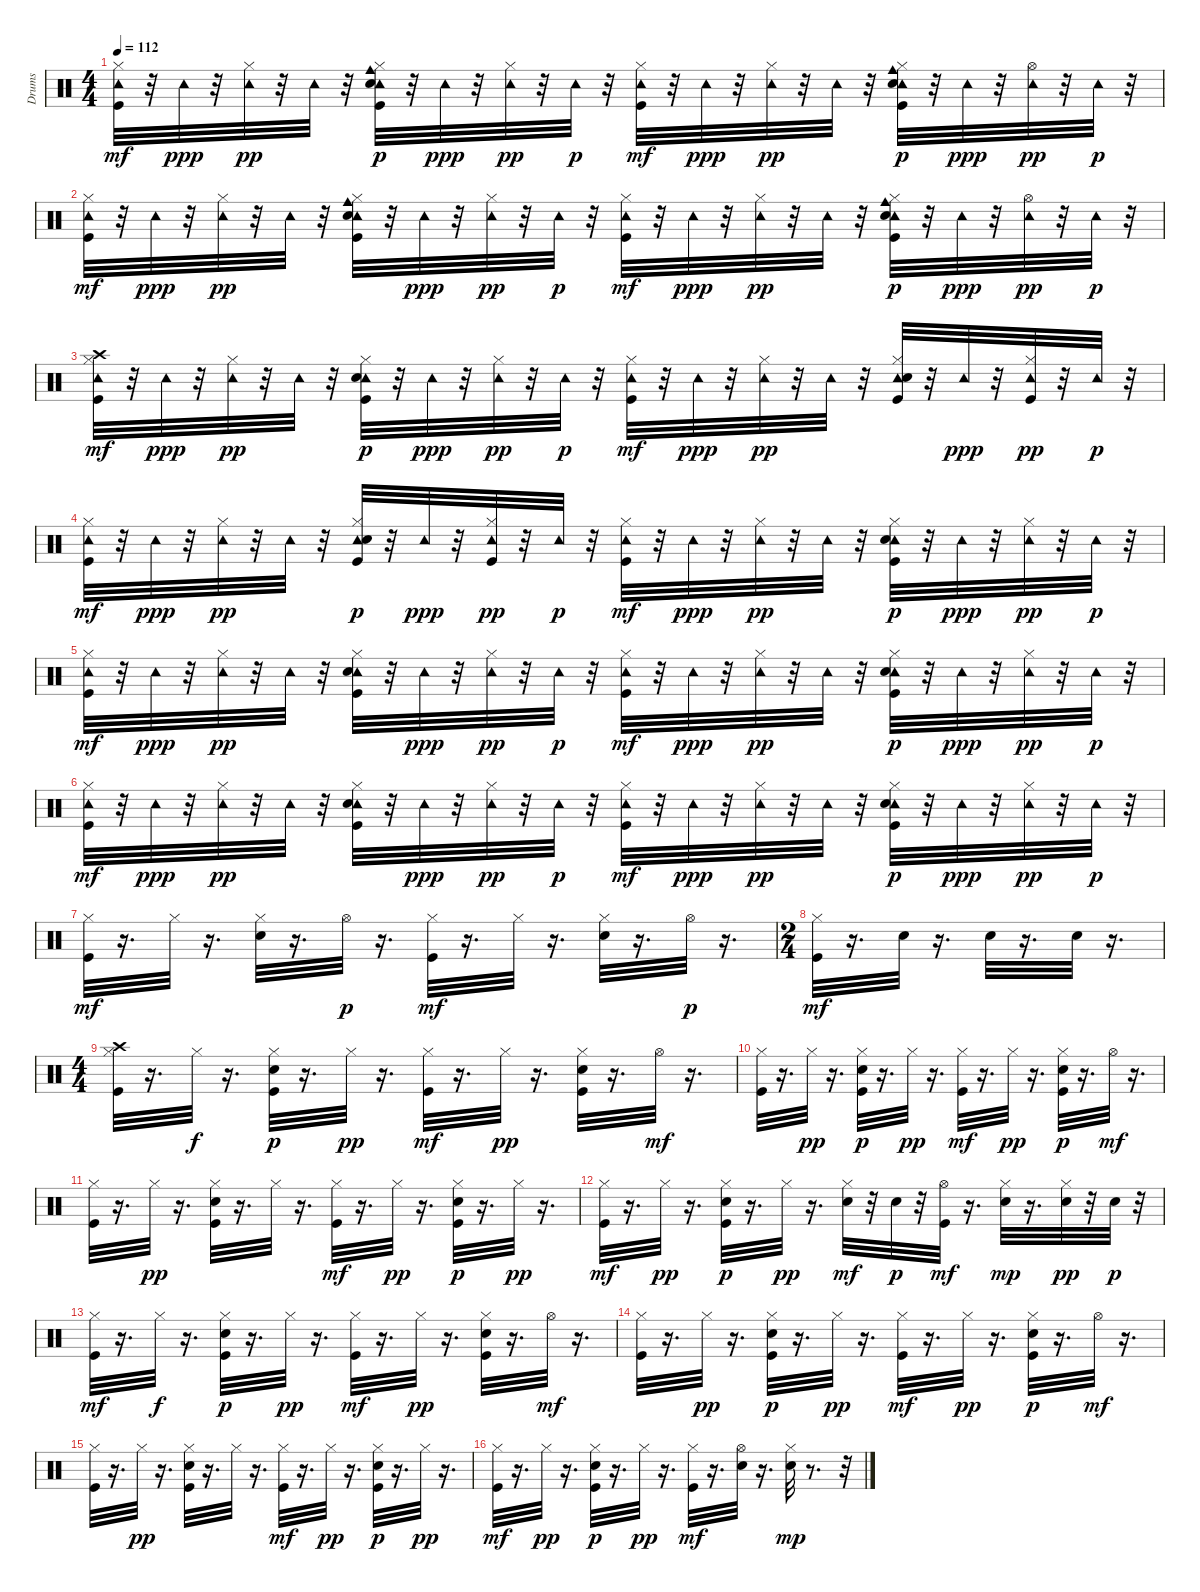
\track ("Drums" "Drums") {instrument percussion}
\staff {score}
\articulation defaults
\ts (4 4)
\tempo 112
\clef neutral
\ks c
("Tambourine (hit)" "Hi-Hat (closed)" "Kick (hit)").32{dy mf} r.32 "Tambourine (hit)".32{dy ppp} r.32 ("Tambourine (hit)" "Hi-Hat (closed)").32{dy pp} r.32 "Tambourine (hit)".32 r.32 ("Cowbell medium (hit)" "Tambourine (hit)" "Hi-Hat (closed)" "Electric Snare (hit)" "Kick (hit)").32{dy p} r.32 "Tambourine (hit)".32{dy ppp} r.32 ("Tambourine (hit)" "Hi-Hat (closed)").32{dy pp} r.32 "Tambourine (hit)".32{dy p} r.32 ("Tambourine (hit)" "Hi-Hat (closed)" "Kick (hit)").32{dy mf} r.32 "Tambourine (hit)".32{dy ppp} r.32 ("Tambourine (hit)" "Hi-Hat (closed)").32{dy pp} r.32 "Tambourine (hit)".32 r.32 ("Cowbell medium (hit)" "Tambourine (hit)" "Hi-Hat (closed)" "Electric Snare (hit)" "Kick (hit)").32{dy p} r.32 "Tambourine (hit)".32{dy ppp} r.32 ("Hi-Hat (open)" "Tambourine (hit)").32{dy pp} r.32 "Tambourine (hit)".32{dy p} r.32 |
("Tambourine (hit)" "Hi-Hat (closed)" "Kick (hit)").32{dy mf} r.32 "Tambourine (hit)".32{dy ppp} r.32 ("Tambourine (hit)" "Hi-Hat (closed)").32{dy pp} r.32 "Tambourine (hit)".32 r.32 ("Cowbell medium (hit)" "Tambourine (hit)" "Hi-Hat (closed)" "Electric Snare (hit)" "Kick (hit)").32 r.32 "Tambourine (hit)".32{dy ppp} r.32 ("Tambourine (hit)" "Hi-Hat (closed)").32{dy pp} r.32 "Tambourine (hit)".32{dy p} r.32 ("Tambourine (hit)" "Hi-Hat (closed)" "Kick (hit)").32{dy mf} r.32 "Tambourine (hit)".32{dy ppp} r.32 ("Tambourine (hit)" "Hi-Hat (closed)").32{dy pp} r.32 "Tambourine (hit)".32 r.32 ("Cowbell medium (hit)" "Tambourine (hit)" "Hi-Hat (closed)" "Electric Snare (hit)" "Kick (hit)").32{dy p} r.32 "Tambourine (hit)".32{dy ppp} r.32 ("Hi-Hat (open)" "Tambourine (hit)").32{dy pp} r.32 "Tambourine (hit)".32{dy p} r.32 |
("Tambourine (hit)" "Hi-Hat (closed)" "Crash high (hit)" "Kick (hit)").32{dy mf} r.32 "Tambourine (hit)".32{dy ppp} r.32 ("Tambourine (hit)" "Hi-Hat (closed)").32{dy pp} r.32 "Tambourine (hit)".32 r.32 ("Tambourine (hit)" "Hi-Hat (closed)" "Electric Snare (hit)" "Kick (hit)").32{dy p} r.32 "Tambourine (hit)".32{dy ppp} r.32 ("Tambourine (hit)" "Hi-Hat (closed)").32{dy pp} r.32 "Tambourine (hit)".32{dy p} r.32 ("Tambourine (hit)" "Hi-Hat (closed)" "Kick (hit)").32{dy mf} r.32 "Tambourine (hit)".32{dy ppp} r.32 ("Tambourine (hit)" "Hi-Hat (closed)").32{dy pp} r.32 "Tambourine (hit)".32 r.32 ("Tambourine (hit)" "Hi-Hat (closed)" "Electric Snare (hit)" "Kick (hit)").32 r.32 "Tambourine (hit)".32{dy ppp} r.32 ("Kick (hit)" "Hi-Hat (closed)" "Tambourine (hit)").32{dy pp} r.32 "Tambourine (hit)".32{dy p} r.32 |
("Tambourine (hit)" "Hi-Hat (closed)" "Kick (hit)").32{dy mf} r.32 "Tambourine (hit)".32{dy ppp} r.32 ("Tambourine (hit)" "Hi-Hat (closed)").32{dy pp} r.32 "Tambourine (hit)".32 r.32 ("Tambourine (hit)" "Hi-Hat (closed)" "Electric Snare (hit)" "Kick (hit)").32{dy p} r.32 "Tambourine (hit)".32{dy ppp} r.32 ("Kick (hit)" "Tambourine (hit)" "Hi-Hat (closed)").32{dy pp} r.32 "Tambourine (hit)".32{dy p} r.32 ("Tambourine (hit)" "Hi-Hat (closed)" "Kick (hit)").32{dy mf} r.32 "Tambourine (hit)".32{dy ppp} r.32 ("Tambourine (hit)" "Hi-Hat (closed)").32{dy pp} r.32 "Tambourine (hit)".32 r.32 ("Tambourine (hit)" "Hi-Hat (closed)" "Electric Snare (hit)" "Kick (hit)").32{dy p} r.32 "Tambourine (hit)".32{dy ppp} r.32 ("Hi-Hat (closed)" "Tambourine (hit)").32{dy pp} r.32 "Tambourine (hit)".32{dy p} r.32 |
("Tambourine (hit)" "Hi-Hat (closed)" "Kick (hit)").32{dy mf} r.32 "Tambourine (hit)".32{dy ppp} r.32 ("Tambourine (hit)" "Hi-Hat (closed)").32{dy pp} r.32 "Tambourine (hit)".32 r.32 ("Tambourine (hit)" "Hi-Hat (closed)" "Electric Snare (hit)" "Kick (hit)").32 r.32 "Tambourine (hit)".32{dy ppp} r.32 ("Tambourine (hit)" "Hi-Hat (closed)").32{dy pp} r.32 "Tambourine (hit)".32{dy p} r.32 ("Tambourine (hit)" "Hi-Hat (closed)" "Kick (hit)").32{dy mf} r.32 "Tambourine (hit)".32{dy ppp} r.32 ("Tambourine (hit)" "Hi-Hat (closed)").32{dy pp} r.32 "Tambourine (hit)".32 r.32 ("Tambourine (hit)" "Hi-Hat (closed)" "Electric Snare (hit)" "Kick (hit)").32{dy p} r.32 "Tambourine (hit)".32{dy ppp} r.32 ("Hi-Hat (closed)" "Tambourine (hit)").32{dy pp} r.32 "Tambourine (hit)".32{dy p} r.32 |
("Tambourine (hit)" "Hi-Hat (closed)" "Kick (hit)").32{dy mf} r.32 "Tambourine (hit)".32{dy ppp} r.32 ("Tambourine (hit)" "Hi-Hat (closed)").32{dy pp} r.32 "Tambourine (hit)".32 r.32 ("Tambourine (hit)" "Hi-Hat (closed)" "Electric Snare (hit)" "Kick (hit)").32 r.32 "Tambourine (hit)".32{dy ppp} r.32 ("Tambourine (hit)" "Hi-Hat (closed)").32{dy pp} r.32 "Tambourine (hit)".32{dy p} r.32 ("Tambourine (hit)" "Hi-Hat (closed)" "Kick (hit)").32{dy mf} r.32 "Tambourine (hit)".32{dy ppp} r.32 ("Tambourine (hit)" "Hi-Hat (closed)").32{dy pp} r.32 "Tambourine (hit)".32 r.32 ("Tambourine (hit)" "Hi-Hat (closed)" "Electric Snare (hit)" "Kick (hit)").32{dy p} r.32 "Tambourine (hit)".32{dy ppp} r.32 ("Hi-Hat (closed)" "Tambourine (hit)").32{dy pp} r.32 "Tambourine (hit)".32{dy p} r.32 |
("Hi-Hat (closed)" "Kick (hit)").32{dy mf} r.16{d} "Hi-Hat (closed)".32 r.16{d} ("Hi-Hat (closed)" "Electric Snare (hit)").32 r.16{d} "Hi-Hat (open)".32{dy p} r.16{d} ("Hi-Hat (closed)" "Kick (hit)").32{dy mf} r.16{d} "Hi-Hat (closed)".32 r.16{d} ("Hi-Hat (closed)" "Electric Snare (hit)").32 r.16{d} "Hi-Hat (open)".32{dy p} r.16{d} |
\ts (2 4)
("Hi-Hat (closed)" "Kick (hit)").32{dy mf} r.16{d} "Electric Snare (hit)".32 r.16{d} "Electric Snare (hit)".32 r.16{d} "Electric Snare (hit)".32 r.16{d} |
\ts (4 4)
("Hi-Hat (closed)" "Crash high (hit)" "Kick (hit)").32 r.16{d} "Hi-Hat (closed)".32{dy f} r.16{d} ("Hi-Hat (closed)" "Electric Snare (hit)" "Kick (hit)").32{dy p} r.16{d} "Hi-Hat (closed)".32{dy pp} r.16{d} ("Hi-Hat (closed)" "Kick (hit)").32{dy mf} r.16{d} "Hi-Hat (closed)".32{dy pp} r.16{d} ("Hi-Hat (closed)" "Electric Snare (hit)" "Kick (hit)").32 r.16{d} "Hi-Hat (open)".32{dy mf} r.16{d} |
("Hi-Hat (closed)" "Kick (hit)").32 r.16{d} "Hi-Hat (closed)".32{dy pp} r.16{d} ("Hi-Hat (closed)" "Electric Snare (hit)" "Kick (hit)").32{dy p} r.16{d} "Hi-Hat (closed)".32{dy pp} r.16{d} ("Hi-Hat (closed)" "Kick (hit)").32{dy mf} r.16{d} "Hi-Hat (closed)".32{dy pp} r.16{d} ("Hi-Hat (closed)" "Electric Snare (hit)" "Kick (hit)").32{dy p} r.16{d} "Hi-Hat (open)".32{dy mf} r.16{d} |
("Hi-Hat (closed)" "Kick (hit)").32 r.16{d} "Hi-Hat (closed)".32{dy pp} r.16{d} ("Hi-Hat (closed)" "Electric Snare (hit)" "Kick (hit)").32 r.16{d} "Hi-Hat (closed)".32 r.16{d} ("Hi-Hat (closed)" "Kick (hit)").32{dy mf} r.16{d} "Hi-Hat (closed)".32{dy pp} r.16{d} ("Hi-Hat (closed)" "Electric Snare (hit)" "Kick (hit)").32{dy p} r.16{d} "Hi-Hat (closed)".32{dy pp} r.16{d} |
("Kick (hit)" "Hi-Hat (closed)").32{dy mf} r.16{d} "Hi-Hat (closed)".32{dy pp} r.16{d} ("Kick (hit)" "Electric Snare (hit)" "Hi-Hat (closed)").32{dy p} r.16{d} "Hi-Hat (closed)".32{dy pp} r.16{d} ("Electric Snare (hit)" "Hi-Hat (closed)").32{dy mf} r.32 "Electric Snare (hit)".32{dy p} r.32 ("Kick (hit)" "Hi-Hat (open)").32{dy mf} r.16{d} ("Electric Snare (hit)" "Hi-Hat (closed)").32{dy mp} r.16{d} ("Electric Snare (hit)" "Hi-Hat (closed)").32{dy pp} r.32 "Electric Snare (hit)".32{dy p} r.32 |
("Hi-Hat (closed)" "Kick (hit)").32{dy mf} r.16{d} "Hi-Hat (closed)".32{dy f} r.16{d} ("Hi-Hat (closed)" "Electric Snare (hit)" "Kick (hit)").32{dy p} r.16{d} "Hi-Hat (closed)".32{dy pp} r.16{d} ("Hi-Hat (closed)" "Kick (hit)").32{dy mf} r.16{d} "Hi-Hat (closed)".32{dy pp} r.16{d} ("Hi-Hat (closed)" "Electric Snare (hit)" "Kick (hit)").32 r.16{d} "Hi-Hat (open)".32{dy mf} r.16{d} |
("Hi-Hat (closed)" "Kick (hit)").32 r.16{d} "Hi-Hat (closed)".32{dy pp} r.16{d} ("Hi-Hat (closed)" "Electric Snare (hit)" "Kick (hit)").32{dy p} r.16{d} "Hi-Hat (closed)".32{dy pp} r.16{d} ("Hi-Hat (closed)" "Kick (hit)").32{dy mf} r.16{d} "Hi-Hat (closed)".32{dy pp} r.16{d} ("Hi-Hat (closed)" "Electric Snare (hit)" "Kick (hit)").32{dy p} r.16{d} "Hi-Hat (open)".32{dy mf} r.16{d} |
("Hi-Hat (closed)" "Kick (hit)").32 r.16{d} "Hi-Hat (closed)".32{dy pp} r.16{d} ("Hi-Hat (closed)" "Electric Snare (hit)" "Kick (hit)").32 r.16{d} "Hi-Hat (closed)".32 r.16{d} ("Hi-Hat (closed)" "Kick (hit)").32{dy mf} r.16{d} "Hi-Hat (closed)".32{dy pp} r.16{d} ("Hi-Hat (closed)" "Electric Snare (hit)" "Kick (hit)").32{dy p} r.16{d} "Hi-Hat (closed)".32{dy pp} r.16{d} |
("Kick (hit)" "Hi-Hat (closed)").32{dy mf} r.16{d} "Hi-Hat (closed)".32{dy pp} r.16{d} ("Kick (hit)" "Electric Snare (hit)" "Hi-Hat (closed)").32{dy p} r.16{d} "Hi-Hat (closed)".32{dy pp} r.16{d} ("Kick (hit)" "Hi-Hat (closed)").32{dy mf} r.16{d} ("Electric Snare (hit)" "Hi-Hat (open)").32 r.16{d} ("Electric Snare (hit)" "Hi-Hat (closed)").32{dy mp} r.8{d} r.32
